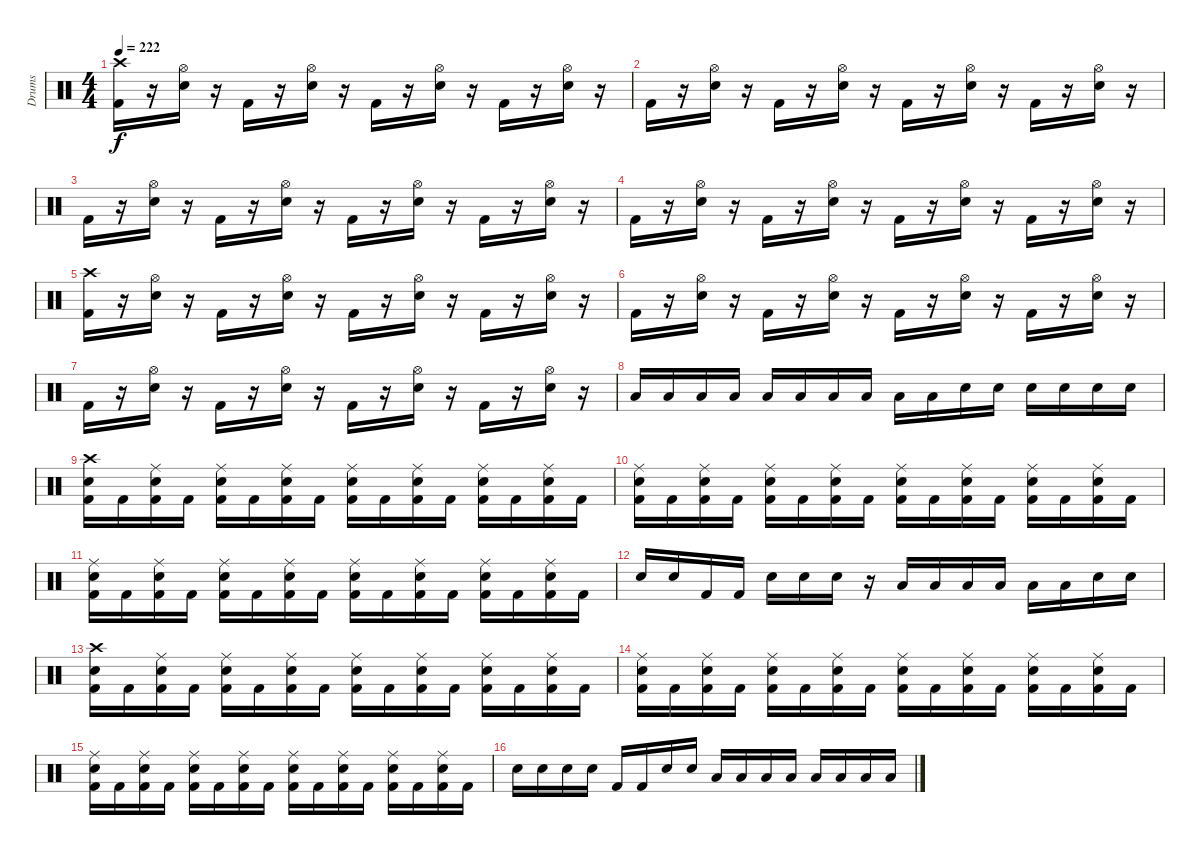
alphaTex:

\track ("Drums" "Drums") {instrument percussion}
\staff {score}
\articulation defaults
\ts (4 4)
\tempo 222
\clef neutral
\ks c
("Kick (hit) 2" "Crash high (hit)").16{dy f} r.16 ("Snare (hit) 2" "Hi-Hat (open)").16 r.16 "Kick (hit) 2".16 r.16 ("Snare (hit) 2" "Hi-Hat (open)").16 r.16 "Kick (hit) 2".16 r.16 ("Snare (hit) 2" "Hi-Hat (open)").16 r.16 "Kick (hit) 2".16 r.16 ("Snare (hit) 2" "Hi-Hat (open)").16 r.16 |
"Kick (hit) 2".16 r.16 ("Snare (hit) 2" "Hi-Hat (open)").16 r.16 "Kick (hit) 2".16 r.16 ("Snare (hit) 2" "Hi-Hat (open)").16 r.16 "Kick (hit) 2".16 r.16 ("Snare (hit) 2" "Hi-Hat (open)").16 r.16 "Kick (hit) 2".16 r.16 ("Snare (hit) 2" "Hi-Hat (open)").16 r.16 |
"Kick (hit) 2".16 r.16 ("Snare (hit) 2" "Hi-Hat (open)").16 r.16 "Kick (hit) 2".16 r.16 ("Snare (hit) 2" "Hi-Hat (open)").16 r.16 "Kick (hit) 2".16 r.16 ("Snare (hit) 2" "Hi-Hat (open)").16 r.16 "Kick (hit) 2".16 r.16 ("Snare (hit) 2" "Hi-Hat (open)").16 r.16 |
"Kick (hit) 2".16 r.16 ("Snare (hit) 2" "Hi-Hat (open)").16 r.16 "Kick (hit) 2".16 r.16 ("Snare (hit) 2" "Hi-Hat (open)").16 r.16 "Kick (hit) 2".16 r.16 ("Snare (hit) 2" "Hi-Hat (open)").16 r.16 "Kick (hit) 2".16 r.16 ("Snare (hit) 2" "Hi-Hat (open)").16 r.16 |
("Kick (hit) 2" "Crash high (hit)").16 r.16 ("Snare (hit) 2" "Hi-Hat (open)").16 r.16 "Kick (hit) 2".16 r.16 ("Snare (hit) 2" "Hi-Hat (open)").16 r.16 "Kick (hit) 2".16 r.16 ("Snare (hit) 2" "Hi-Hat (open)").16 r.16 "Kick (hit) 2".16 r.16 ("Snare (hit) 2" "Hi-Hat (open)").16 r.16 |
"Kick (hit) 2".16 r.16 ("Snare (hit) 2" "Hi-Hat (open)").16 r.16 "Kick (hit) 2".16 r.16 ("Snare (hit) 2" "Hi-Hat (open)").16 r.16 "Kick (hit) 2".16 r.16 ("Snare (hit) 2" "Hi-Hat (open)").16 r.16 "Kick (hit) 2".16 r.16 ("Snare (hit) 2" "Hi-Hat (open)").16 r.16 |
"Kick (hit) 2".16 r.16 ("Snare (hit) 2" "Hi-Hat (open)").16 r.16 "Kick (hit) 2".16 r.16 ("Snare (hit) 2" "Hi-Hat (open)").16 r.16 "Kick (hit) 2".16 r.16 ("Snare (hit) 2" "Hi-Hat (open)").16 r.16 "Kick (hit) 2".16 r.16 ("Snare (hit) 2" "Hi-Hat (open)").16 r.16 |
"Low Tom (hit)".16 "Low Tom (hit)".16 "Low Tom (hit)".16 "Low Floor Tom (hit)".16 "Low Floor Tom (hit)".16 "Low Floor Tom (hit)".16 "Low Tom (hit)".16 "Low Tom (hit)".16 "Low Tom (hit)".16 "Low Tom (hit)".16 "Snare (hit) 2".16 "Snare (hit) 2".16 "Snare (hit) 2".16 "Snare (hit) 2".16 "Snare (hit) 2".16 "Snare (hit) 2".16 |
("Kick (hit) 2" "Snare (hit) 2" "Crash high (hit)").16 "Kick (hit) 2".16 ("Kick (hit) 2" "Snare (hit) 2" "Ride (middle)").16 "Kick (hit) 2".16 ("Kick (hit) 2" "Snare (hit) 2" "Ride (middle)").16 "Kick (hit) 2".16 ("Kick (hit) 2" "Snare (hit) 2" "Ride (middle)").16 "Kick (hit) 2".16 ("Kick (hit) 2" "Snare (hit) 2" "Ride (middle)").16 "Kick (hit) 2".16 ("Kick (hit) 2" "Snare (hit) 2" "Ride (middle)").16 "Kick (hit) 2".16 ("Kick (hit) 2" "Snare (hit) 2" "Ride (middle)").16 "Kick (hit) 2".16 ("Kick (hit) 2" "Snare (hit) 2" "Ride (middle)").16 "Kick (hit) 2".16 |
("Kick (hit) 2" "Snare (hit) 2" "Ride (middle)").16 "Kick (hit) 2".16 ("Kick (hit) 2" "Snare (hit) 2" "Ride (middle)").16 "Kick (hit) 2".16 ("Kick (hit) 2" "Snare (hit) 2" "Ride (middle)").16 "Kick (hit) 2".16 ("Kick (hit) 2" "Snare (hit) 2" "Ride (middle)").16 "Kick (hit) 2".16 ("Kick (hit) 2" "Snare (hit) 2" "Ride (middle)").16 "Kick (hit) 2".16 ("Kick (hit) 2" "Snare (hit) 2" "Ride (middle)").16 "Kick (hit) 2".16 ("Kick (hit) 2" "Snare (hit) 2" "Ride (middle)").16 "Kick (hit) 2".16 ("Kick (hit) 2" "Snare (hit) 2" "Ride (middle)").16 "Kick (hit) 2".16 |
("Kick (hit) 2" "Snare (hit) 2" "Ride (middle)").16 "Kick (hit) 2".16 ("Kick (hit) 2" "Snare (hit) 2" "Ride (middle)").16 "Kick (hit) 2".16 ("Kick (hit) 2" "Snare (hit) 2" "Ride (middle)").16 "Kick (hit) 2".16 ("Kick (hit) 2" "Snare (hit) 2" "Ride (middle)").16 "Kick (hit) 2".16 ("Kick (hit) 2" "Snare (hit) 2" "Ride (middle)").16 "Kick (hit) 2".16 ("Kick (hit) 2" "Snare (hit) 2" "Ride (middle)").16 "Kick (hit) 2".16 ("Kick (hit) 2" "Snare (hit) 2" "Ride (middle)").16 "Kick (hit) 2".16 ("Kick (hit) 2" "Snare (hit) 2" "Ride (middle)").16 "Kick (hit) 2".16 |
"Snare (hit) 2".16 "Snare (hit) 2".16 "Kick (hit) 2".16 "Kick (hit) 2".16 "Snare (hit) 2".16 "Snare (hit) 2".16 "Snare (hit) 2".16 r.16 "Low Floor Tom (hit)".16 "Low Floor Tom (hit)".16 "Low Floor Tom (hit)".16 "Low Tom (hit)".16 "Low Tom (hit)".16 "Low Tom (hit)".16 "Snare (hit) 2".16 "Snare (hit) 2".16 |
("Kick (hit) 2" "Snare (hit) 2" "Crash high (hit)").16 "Kick (hit) 2".16 ("Kick (hit) 2" "Snare (hit) 2" "Ride (middle)").16 "Kick (hit) 2".16 ("Kick (hit) 2" "Snare (hit) 2" "Ride (middle)").16 "Kick (hit) 2".16 ("Kick (hit) 2" "Snare (hit) 2" "Ride (middle)").16 "Kick (hit) 2".16 ("Kick (hit) 2" "Snare (hit) 2" "Ride (middle)").16 "Kick (hit) 2".16 ("Kick (hit) 2" "Snare (hit) 2" "Ride (middle)").16 "Kick (hit) 2".16 ("Kick (hit) 2" "Snare (hit) 2" "Ride (middle)").16 "Kick (hit) 2".16 ("Kick (hit) 2" "Snare (hit) 2" "Ride (middle)").16 "Kick (hit) 2".16 |
("Kick (hit) 2" "Snare (hit) 2" "Ride (middle)").16 "Kick (hit) 2".16 ("Kick (hit) 2" "Snare (hit) 2" "Ride (middle)").16 "Kick (hit) 2".16 ("Kick (hit) 2" "Snare (hit) 2" "Ride (middle)").16 "Kick (hit) 2".16 ("Kick (hit) 2" "Snare (hit) 2" "Ride (middle)").16 "Kick (hit) 2".16 ("Kick (hit) 2" "Snare (hit) 2" "Ride (middle)").16 "Kick (hit) 2".16 ("Kick (hit) 2" "Snare (hit) 2" "Ride (middle)").16 "Kick (hit) 2".16 ("Kick (hit) 2" "Snare (hit) 2" "Ride (middle)").16 "Kick (hit) 2".16 ("Kick (hit) 2" "Snare (hit) 2" "Ride (middle)").16 "Kick (hit) 2".16 |
("Kick (hit) 2" "Snare (hit) 2" "Ride (middle)").16 "Kick (hit) 2".16 ("Kick (hit) 2" "Snare (hit) 2" "Ride (middle)").16 "Kick (hit) 2".16 ("Kick (hit) 2" "Snare (hit) 2" "Ride (middle)").16 "Kick (hit) 2".16 ("Kick (hit) 2" "Snare (hit) 2" "Ride (middle)").16 "Kick (hit) 2".16 ("Kick (hit) 2" "Snare (hit) 2" "Ride (middle)").16 "Kick (hit) 2".16 ("Kick (hit) 2" "Snare (hit) 2" "Ride (middle)").16 "Kick (hit) 2".16 ("Kick (hit) 2" "Snare (hit) 2" "Ride (middle)").16 "Kick (hit) 2".16 ("Kick (hit) 2" "Snare (hit) 2" "Ride (middle)").16 "Kick (hit) 2".16 |
"Snare (hit) 2".16 "Snare (hit) 2".16 "Snare (hit) 2".16 "Snare (hit) 2".16 "Kick (hit) 2".16 "Kick (hit) 2".16 "Snare (hit) 2".16 "Snare (hit) 2".16 "Low Tom (hit)".16 "Low Tom (hit)".16 "Low Tom (hit)".16 "Low Tom (hit)".16 "Low Floor Tom (hit)".16 "Low Floor Tom (hit)".16 "Low Floor Tom (hit)".16 "Low Floor Tom (hit)".16
